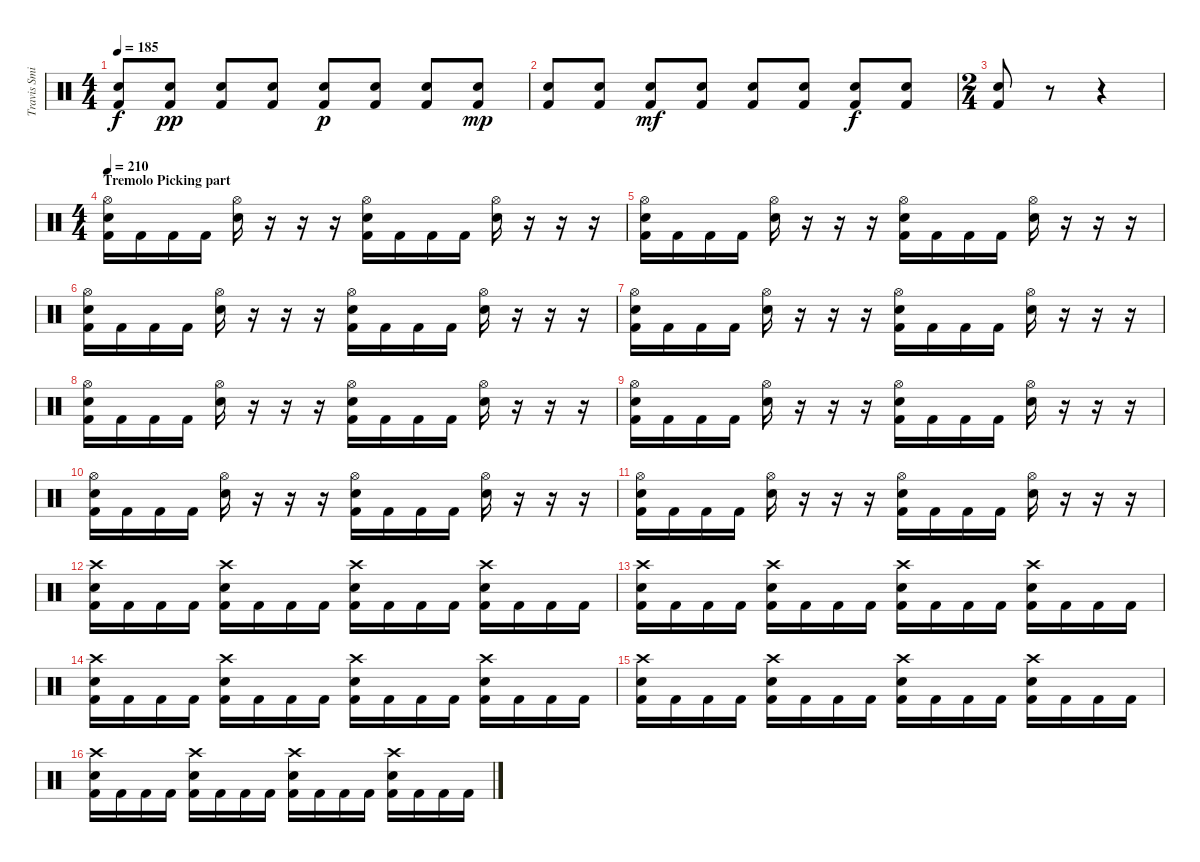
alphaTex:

\track ("Travis Smith" "Travis Smi") {instrument percussion}
\staff {score}
\articulation defaults
\ts (4 4)
\tempo 185
\clef neutral
\ks c
("Electric Snare (hit)" "Kick (hit) 2").8{dy f} ("Electric Snare (hit)" "Kick (hit) 2").8{dy pp} ("Electric Snare (hit)" "Kick (hit) 2").8 ("Electric Snare (hit)" "Kick (hit) 2").8 ("Electric Snare (hit)" "Kick (hit) 2").8{dy p} ("Electric Snare (hit)" "Kick (hit) 2").8 ("Electric Snare (hit)" "Kick (hit) 2").8 ("Electric Snare (hit)" "Kick (hit) 2").8{dy mp} |
("Electric Snare (hit)" "Kick (hit) 2").8 ("Electric Snare (hit)" "Kick (hit) 2").8 ("Electric Snare (hit)" "Kick (hit) 2").8{dy mf} ("Electric Snare (hit)" "Kick (hit) 2").8 ("Electric Snare (hit)" "Kick (hit) 2").8 ("Electric Snare (hit)" "Kick (hit) 2").8 ("Electric Snare (hit)" "Kick (hit) 2").8{dy f} ("Electric Snare (hit)" "Kick (hit) 2").8 |
\ts (2 4)
("Electric Snare (hit)" "Kick (hit) 2").8 r.8 r.4 |
\ts (4 4)
\section ("" "Tremolo Picking part")
\tempo 210
("Hi-Hat (open)" "Electric Snare (hit)" "Kick (hit) 2").16 "Kick (hit) 2".16 "Kick (hit) 2".16 "Kick (hit) 2".16 ("Hi-Hat (open)" "Electric Snare (hit)").16 r.16 r.16 r.16 ("Hi-Hat (open)" "Electric Snare (hit)" "Kick (hit) 2").16 "Kick (hit) 2".16 "Kick (hit) 2".16 "Kick (hit) 2".16 ("Hi-Hat (open)" "Electric Snare (hit)").16 r.16 r.16 r.16 |
("Hi-Hat (open)" "Electric Snare (hit)" "Kick (hit) 2").16 "Kick (hit) 2".16 "Kick (hit) 2".16 "Kick (hit) 2".16 ("Hi-Hat (open)" "Electric Snare (hit)").16 r.16 r.16 r.16 ("Hi-Hat (open)" "Electric Snare (hit)" "Kick (hit) 2").16 "Kick (hit) 2".16 "Kick (hit) 2".16 "Kick (hit) 2".16 ("Hi-Hat (open)" "Electric Snare (hit)").16 r.16 r.16 r.16 |
("Hi-Hat (open)" "Electric Snare (hit)" "Kick (hit) 2").16 "Kick (hit) 2".16 "Kick (hit) 2".16 "Kick (hit) 2".16 ("Hi-Hat (open)" "Electric Snare (hit)").16 r.16 r.16 r.16 ("Hi-Hat (open)" "Electric Snare (hit)" "Kick (hit) 2").16 "Kick (hit) 2".16 "Kick (hit) 2".16 "Kick (hit) 2".16 ("Hi-Hat (open)" "Electric Snare (hit)").16 r.16 r.16 r.16 |
("Hi-Hat (open)" "Electric Snare (hit)" "Kick (hit) 2").16 "Kick (hit) 2".16 "Kick (hit) 2".16 "Kick (hit) 2".16 ("Hi-Hat (open)" "Electric Snare (hit)").16 r.16 r.16 r.16 ("Hi-Hat (open)" "Electric Snare (hit)" "Kick (hit) 2").16 "Kick (hit) 2".16 "Kick (hit) 2".16 "Kick (hit) 2".16 ("Hi-Hat (open)" "Electric Snare (hit)").16 r.16 r.16 r.16 |
("Hi-Hat (open)" "Electric Snare (hit)" "Kick (hit) 2").16 "Kick (hit) 2".16 "Kick (hit) 2".16 "Kick (hit) 2".16 ("Hi-Hat (open)" "Electric Snare (hit)").16 r.16 r.16 r.16 ("Hi-Hat (open)" "Electric Snare (hit)" "Kick (hit) 2").16 "Kick (hit) 2".16 "Kick (hit) 2".16 "Kick (hit) 2".16 ("Hi-Hat (open)" "Electric Snare (hit)").16 r.16 r.16 r.16 |
("Hi-Hat (open)" "Electric Snare (hit)" "Kick (hit) 2").16 "Kick (hit) 2".16 "Kick (hit) 2".16 "Kick (hit) 2".16 ("Hi-Hat (open)" "Electric Snare (hit)").16 r.16 r.16 r.16 ("Hi-Hat (open)" "Electric Snare (hit)" "Kick (hit) 2").16 "Kick (hit) 2".16 "Kick (hit) 2".16 "Kick (hit) 2".16 ("Hi-Hat (open)" "Electric Snare (hit)").16 r.16 r.16 r.16 |
("Hi-Hat (open)" "Electric Snare (hit)" "Kick (hit) 2").16 "Kick (hit) 2".16 "Kick (hit) 2".16 "Kick (hit) 2".16 ("Hi-Hat (open)" "Electric Snare (hit)").16 r.16 r.16 r.16 ("Hi-Hat (open)" "Electric Snare (hit)" "Kick (hit) 2").16 "Kick (hit) 2".16 "Kick (hit) 2".16 "Kick (hit) 2".16 ("Hi-Hat (open)" "Electric Snare (hit)").16 r.16 r.16 r.16 |
("Hi-Hat (open)" "Electric Snare (hit)" "Kick (hit) 2").16 "Kick (hit) 2".16 "Kick (hit) 2".16 "Kick (hit) 2".16 ("Hi-Hat (open)" "Electric Snare (hit)").16 r.16 r.16 r.16 ("Hi-Hat (open)" "Electric Snare (hit)" "Kick (hit) 2").16 "Kick (hit) 2".16 "Kick (hit) 2".16 "Kick (hit) 2".16 ("Hi-Hat (open)" "Electric Snare (hit)").16 r.16 r.16 r.16 |
("Crash high (hit)" "Electric Snare (hit)" "Kick (hit) 2").16 "Kick (hit) 2".16 "Kick (hit) 2".16 "Kick (hit) 2".16 ("Crash high (hit)" "Electric Snare (hit)" "Kick (hit) 2").16 "Kick (hit) 2".16 "Kick (hit) 2".16 "Kick (hit) 2".16 ("Crash high (hit)" "Electric Snare (hit)" "Kick (hit) 2").16 "Kick (hit) 2".16 "Kick (hit) 2".16 "Kick (hit) 2".16 ("Crash high (hit)" "Electric Snare (hit)" "Kick (hit) 2").16 "Kick (hit) 2".16 "Kick (hit) 2".16 "Kick (hit) 2".16 |
("Crash high (hit)" "Electric Snare (hit)" "Kick (hit) 2").16 "Kick (hit) 2".16 "Kick (hit) 2".16 "Kick (hit) 2".16 ("Crash high (hit)" "Electric Snare (hit)" "Kick (hit) 2").16 "Kick (hit) 2".16 "Kick (hit) 2".16 "Kick (hit) 2".16 ("Crash high (hit)" "Electric Snare (hit)" "Kick (hit) 2").16 "Kick (hit) 2".16 "Kick (hit) 2".16 "Kick (hit) 2".16 ("Crash high (hit)" "Electric Snare (hit)" "Kick (hit) 2").16 "Kick (hit) 2".16 "Kick (hit) 2".16 "Kick (hit) 2".16 |
("Crash high (hit)" "Electric Snare (hit)" "Kick (hit) 2").16 "Kick (hit) 2".16 "Kick (hit) 2".16 "Kick (hit) 2".16 ("Crash high (hit)" "Electric Snare (hit)" "Kick (hit) 2").16 "Kick (hit) 2".16 "Kick (hit) 2".16 "Kick (hit) 2".16 ("Crash high (hit)" "Electric Snare (hit)" "Kick (hit) 2").16 "Kick (hit) 2".16 "Kick (hit) 2".16 "Kick (hit) 2".16 ("Crash high (hit)" "Electric Snare (hit)" "Kick (hit) 2").16 "Kick (hit) 2".16 "Kick (hit) 2".16 "Kick (hit) 2".16 |
("Crash high (hit)" "Electric Snare (hit)" "Kick (hit) 2").16 "Kick (hit) 2".16 "Kick (hit) 2".16 "Kick (hit) 2".16 ("Crash high (hit)" "Electric Snare (hit)" "Kick (hit) 2").16 "Kick (hit) 2".16 "Kick (hit) 2".16 "Kick (hit) 2".16 ("Crash high (hit)" "Electric Snare (hit)" "Kick (hit) 2").16 "Kick (hit) 2".16 "Kick (hit) 2".16 "Kick (hit) 2".16 ("Crash high (hit)" "Electric Snare (hit)" "Kick (hit) 2").16 "Kick (hit) 2".16 "Kick (hit) 2".16 "Kick (hit) 2".16 |
("Crash high (hit)" "Electric Snare (hit)" "Kick (hit) 2").16 "Kick (hit) 2".16 "Kick (hit) 2".16 "Kick (hit) 2".16 ("Crash high (hit)" "Electric Snare (hit)" "Kick (hit) 2").16 "Kick (hit) 2".16 "Kick (hit) 2".16 "Kick (hit) 2".16 ("Crash high (hit)" "Electric Snare (hit)" "Kick (hit) 2").16 "Kick (hit) 2".16 "Kick (hit) 2".16 "Kick (hit) 2".16 ("Crash high (hit)" "Electric Snare (hit)" "Kick (hit) 2").16 "Kick (hit) 2".16 "Kick (hit) 2".16 "Kick (hit) 2".16
